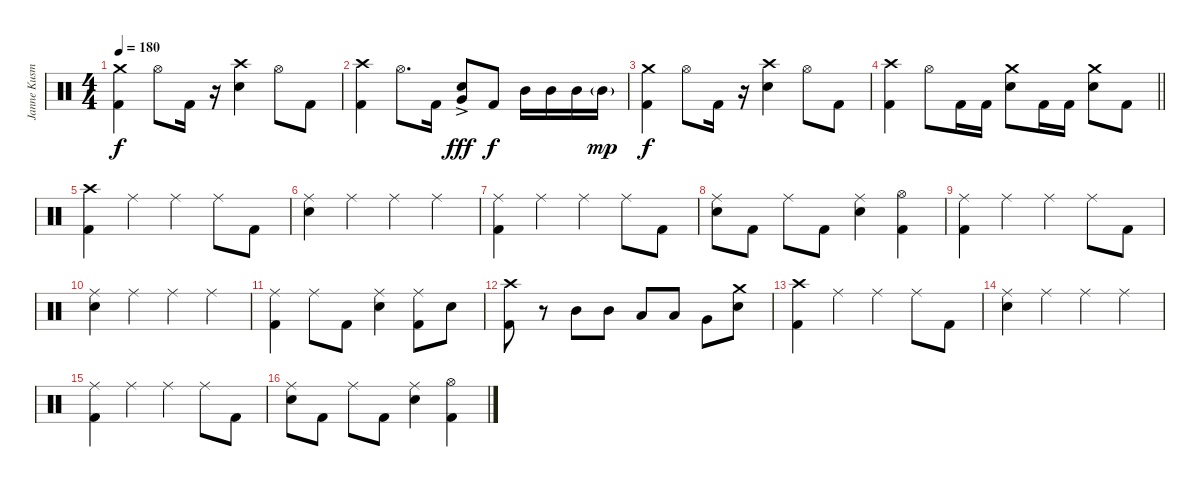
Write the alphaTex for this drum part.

\track ("Janne Kusmin - Drums" "Janne Kusm") {instrument percussion}
\staff {score}
\articulation defaults
\ts (4 4)
\tempo 180
\clef neutral
\ks c
("Crash medium (hit)" "Kick (hit) 2").4{dy f} "Hi-Hat (open)".8 "Kick (hit) 2".16 r.16 ("Crash high (hit)" "Electric Snare (hit)").4 "Hi-Hat (open)".8 "Kick (hit) 2".8 |
("Crash high (hit)" "Kick (hit) 2").4 "Hi-Hat (open)".8{d} "Kick (hit) 2".16 ("Very Low Tom (hit)"{ac} "Electric Snare (hit)").8{dy fff} "Kick (hit) 2".8{dy f} "Mid Tom (hit)".16 "Mid Tom (hit)".16 "Mid Tom (hit)".16 "Mid Tom (hit)"{g}.16{dy mp} |
("Crash medium (hit)" "Kick (hit) 2").4{dy f} "Hi-Hat (open)".8 "Kick (hit) 2".16 r.16 ("Crash high (hit)" "Electric Snare (hit)").4 "Hi-Hat (open)".8 "Kick (hit) 2".8 |
\barLineRight lightlight
("Crash high (hit)" "Kick (hit) 2").4 "Hi-Hat (open)".8 "Kick (hit) 2".16 "Kick (hit) 2".16 ("Crash medium (hit)" "Electric Snare (hit)").8 "Kick (hit) 2".16 "Kick (hit) 2".16 ("Crash medium (hit)" "Electric Snare (hit)").8 "Kick (hit) 2".8 |
\section ("" "")
("Crash high (hit)" "Kick (hit) 2").4 "Ride (middle)".4 "Ride (middle)".4 "Ride (middle)".8 "Kick (hit) 2".8 |
("Ride (middle)" "Electric Snare (hit)").4 "Ride (middle)".4 "Ride (middle)".4 "Ride (middle)".4 |
("Ride (middle)" "Kick (hit) 2").4 "Ride (middle)".4 "Ride (middle)".4 "Ride (middle)".8 "Kick (hit) 2".8 |
("Ride (middle)" "Electric Snare (hit)").8 "Kick (hit) 2".8 "Ride (middle)".8 "Kick (hit) 2".8 ("Ride (middle)" "Electric Snare (hit)").4 ("Hi-Hat (open)" "Kick (hit) 2").4 |
("Ride (middle)" "Kick (hit) 2").4 "Ride (middle)".4 "Ride (middle)".4 "Ride (middle)".8 "Kick (hit) 2".8 |
("Ride (middle)" "Electric Snare (hit)").4 "Ride (middle)".4 "Ride (middle)".4 "Ride (middle)".4 |
("Ride (middle)" "Kick (hit) 2").4 "Ride (middle)".8 "Kick (hit) 2".8 ("Ride (middle)" "Electric Snare (hit)").4 ("Ride (middle)" "Kick (hit) 2").8 "Electric Snare (hit)".8 |
("Crash high (hit)" "Kick (hit) 2").8 r.8 "Mid Tom (hit)".8 "Mid Tom (hit)".8 "Low Tom (hit)".8 "Low Tom (hit)".8 "Very Low Tom (hit)".8 ("Crash medium (hit)" "Electric Snare (hit)").8 |
("Crash high (hit)" "Kick (hit) 2").4 "Ride (middle)".4 "Ride (middle)".4 "Ride (middle)".8 "Kick (hit) 2".8 |
("Ride (middle)" "Electric Snare (hit)").4 "Ride (middle)".4 "Ride (middle)".4 "Ride (middle)".4 |
("Ride (middle)" "Kick (hit) 2").4 "Ride (middle)".4 "Ride (middle)".4 "Ride (middle)".8 "Kick (hit) 2".8 |
("Ride (middle)" "Electric Snare (hit)").8 "Kick (hit) 2".8 "Ride (middle)".8 "Kick (hit) 2".8 ("Ride (middle)" "Electric Snare (hit)").4 ("Hi-Hat (open)" "Kick (hit) 2").4
